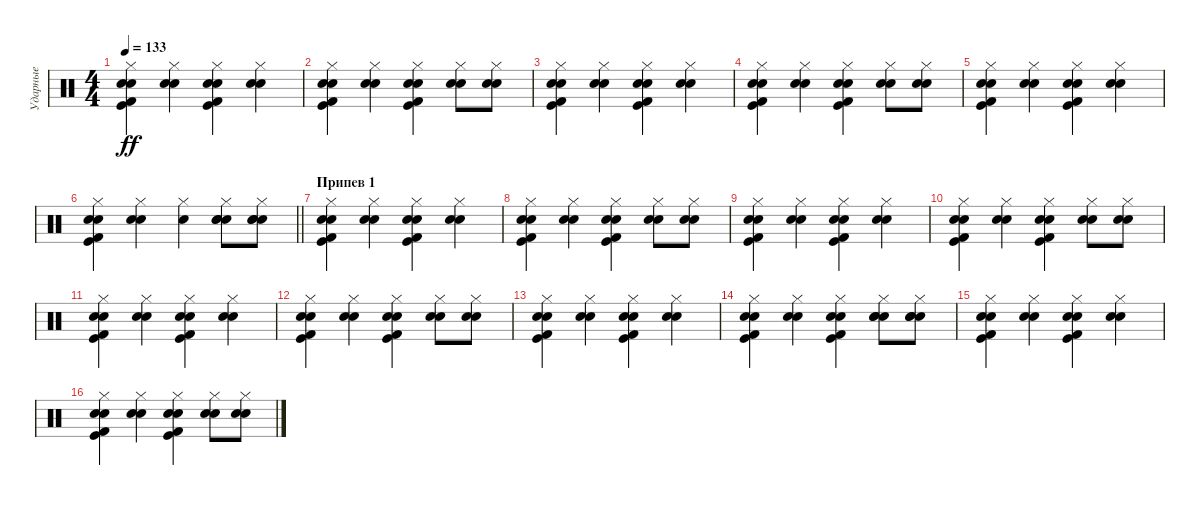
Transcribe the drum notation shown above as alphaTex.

\track ("Ударные" "Ударные") {instrument percussion}
\staff {score}
\articulation defaults
\ts (4 4)
\tempo 133
\clef neutral
\ks c
("Snare (hit) 2" "Kick (hit)" "Kick (hit) 2" "Snare (hit) 2" "Hi-Hat (closed)").4{dy ff} ("Electric Snare (hit)" "Electric Snare (hit)" "Hi-Hat (closed)").4 ("Snare (hit) 2" "Kick (hit)" "Kick (hit) 2" "Snare (hit) 2" "Hi-Hat (closed)").4 ("Electric Snare (hit)" "Electric Snare (hit)" "Hi-Hat (closed)").4 |
("Snare (hit) 2" "Kick (hit)" "Kick (hit) 2" "Snare (hit) 2" "Hi-Hat (closed)").4 ("Electric Snare (hit)" "Electric Snare (hit)" "Hi-Hat (closed)").4 ("Snare (hit) 2" "Kick (hit)" "Kick (hit) 2" "Snare (hit) 2" "Hi-Hat (closed)").4 ("Electric Snare (hit)" "Electric Snare (hit)" "Hi-Hat (closed)").8 ("Electric Snare (hit)" "Electric Snare (hit)" "Hi-Hat (closed)").8 |
("Snare (hit) 2" "Kick (hit)" "Kick (hit) 2" "Snare (hit) 2" "Hi-Hat (closed)").4 ("Electric Snare (hit)" "Electric Snare (hit)" "Hi-Hat (closed)").4 ("Snare (hit) 2" "Kick (hit)" "Kick (hit) 2" "Snare (hit) 2" "Hi-Hat (closed)").4 ("Electric Snare (hit)" "Electric Snare (hit)" "Hi-Hat (closed)").4 |
("Snare (hit) 2" "Kick (hit)" "Kick (hit) 2" "Snare (hit) 2" "Hi-Hat (closed)").4 ("Electric Snare (hit)" "Electric Snare (hit)" "Hi-Hat (closed)").4 ("Snare (hit) 2" "Kick (hit)" "Kick (hit) 2" "Snare (hit) 2" "Hi-Hat (closed)").4 ("Electric Snare (hit)" "Electric Snare (hit)" "Hi-Hat (closed)").8 ("Electric Snare (hit)" "Electric Snare (hit)" "Hi-Hat (closed)").8 |
("Snare (hit) 2" "Kick (hit)" "Kick (hit) 2" "Snare (hit) 2" "Hi-Hat (closed)").4 ("Electric Snare (hit)" "Electric Snare (hit)" "Hi-Hat (closed)").4 ("Snare (hit) 2" "Kick (hit)" "Kick (hit) 2" "Snare (hit) 2" "Hi-Hat (closed)").4 ("Electric Snare (hit)" "Electric Snare (hit)" "Hi-Hat (closed)").4 |
\barLineRight lightlight
("Snare (hit) 2" "Kick (hit)" "Kick (hit) 2" "Snare (hit) 2" "Hi-Hat (closed)").4 ("Electric Snare (hit)" "Electric Snare (hit)" "Hi-Hat (closed)").4 ("Electric Snare (hit)" "Hi-Hat (closed)").4 ("Snare (hit) 2" "Electric Snare (hit)" "Snare (hit) 2" "Hi-Hat (closed)").8 ("Snare (hit) 2" "Electric Snare (hit)" "Snare (hit) 2" "Hi-Hat (closed)").8 |
\section ("" "Припев 1")
("Snare (hit) 2" "Kick (hit)" "Kick (hit) 2" "Snare (hit) 2" "Hi-Hat (closed)").4 ("Electric Snare (hit)" "Electric Snare (hit)" "Hi-Hat (closed)").4 ("Snare (hit) 2" "Kick (hit)" "Kick (hit) 2" "Snare (hit) 2" "Hi-Hat (closed)").4 ("Electric Snare (hit)" "Electric Snare (hit)" "Hi-Hat (closed)").4 |
("Snare (hit) 2" "Kick (hit)" "Kick (hit) 2" "Snare (hit) 2" "Hi-Hat (closed)").4 ("Electric Snare (hit)" "Electric Snare (hit)" "Hi-Hat (closed)").4 ("Snare (hit) 2" "Kick (hit)" "Kick (hit) 2" "Snare (hit) 2" "Hi-Hat (closed)").4 ("Electric Snare (hit)" "Electric Snare (hit)" "Hi-Hat (closed)").8 ("Electric Snare (hit)" "Electric Snare (hit)" "Hi-Hat (closed)").8 |
("Snare (hit) 2" "Kick (hit)" "Kick (hit) 2" "Snare (hit) 2" "Hi-Hat (closed)").4 ("Electric Snare (hit)" "Electric Snare (hit)" "Hi-Hat (closed)").4 ("Snare (hit) 2" "Kick (hit)" "Kick (hit) 2" "Snare (hit) 2" "Hi-Hat (closed)").4 ("Electric Snare (hit)" "Electric Snare (hit)" "Hi-Hat (closed)").4 |
("Snare (hit) 2" "Kick (hit)" "Kick (hit) 2" "Snare (hit) 2" "Hi-Hat (closed)").4 ("Electric Snare (hit)" "Electric Snare (hit)" "Hi-Hat (closed)").4 ("Snare (hit) 2" "Kick (hit)" "Kick (hit) 2" "Snare (hit) 2" "Hi-Hat (closed)").4 ("Electric Snare (hit)" "Electric Snare (hit)" "Hi-Hat (closed)").8 ("Electric Snare (hit)" "Electric Snare (hit)" "Hi-Hat (closed)").8 |
("Snare (hit) 2" "Kick (hit)" "Kick (hit) 2" "Snare (hit) 2" "Hi-Hat (closed)").4 ("Electric Snare (hit)" "Electric Snare (hit)" "Hi-Hat (closed)").4 ("Snare (hit) 2" "Kick (hit)" "Kick (hit) 2" "Snare (hit) 2" "Hi-Hat (closed)").4 ("Electric Snare (hit)" "Electric Snare (hit)" "Hi-Hat (closed)").4 |
("Snare (hit) 2" "Kick (hit)" "Kick (hit) 2" "Snare (hit) 2" "Hi-Hat (closed)").4 ("Electric Snare (hit)" "Electric Snare (hit)" "Hi-Hat (closed)").4 ("Snare (hit) 2" "Kick (hit)" "Kick (hit) 2" "Snare (hit) 2" "Hi-Hat (closed)").4 ("Electric Snare (hit)" "Electric Snare (hit)" "Hi-Hat (closed)").8 ("Electric Snare (hit)" "Electric Snare (hit)" "Hi-Hat (closed)").8 |
("Snare (hit) 2" "Kick (hit)" "Kick (hit) 2" "Snare (hit) 2" "Hi-Hat (closed)").4 ("Electric Snare (hit)" "Electric Snare (hit)" "Hi-Hat (closed)").4 ("Snare (hit) 2" "Kick (hit)" "Kick (hit) 2" "Snare (hit) 2" "Hi-Hat (closed)").4 ("Electric Snare (hit)" "Electric Snare (hit)" "Hi-Hat (closed)").4 |
("Snare (hit) 2" "Kick (hit)" "Kick (hit) 2" "Snare (hit) 2" "Hi-Hat (closed)").4 ("Electric Snare (hit)" "Electric Snare (hit)" "Hi-Hat (closed)").4 ("Snare (hit) 2" "Kick (hit)" "Kick (hit) 2" "Snare (hit) 2" "Hi-Hat (closed)").4 ("Snare (hit) 2" "Snare (hit) 2" "Electric Snare (hit)" "Hi-Hat (closed)").8 ("Snare (hit) 2" "Snare (hit) 2" "Electric Snare (hit)" "Hi-Hat (closed)").8 |
("Snare (hit) 2" "Kick (hit)" "Kick (hit) 2" "Snare (hit) 2" "Hi-Hat (closed)").4 ("Electric Snare (hit)" "Electric Snare (hit)" "Hi-Hat (closed)").4 ("Snare (hit) 2" "Kick (hit)" "Kick (hit) 2" "Snare (hit) 2" "Hi-Hat (closed)").4 ("Electric Snare (hit)" "Electric Snare (hit)" "Hi-Hat (closed)").4 |
("Snare (hit) 2" "Kick (hit)" "Kick (hit) 2" "Snare (hit) 2" "Hi-Hat (closed)").4 ("Electric Snare (hit)" "Electric Snare (hit)" "Hi-Hat (closed)").4 ("Snare (hit) 2" "Kick (hit)" "Kick (hit) 2" "Snare (hit) 2" "Hi-Hat (closed)").4 ("Electric Snare (hit)" "Electric Snare (hit)" "Hi-Hat (closed)").8 ("Electric Snare (hit)" "Electric Snare (hit)" "Hi-Hat (closed)").8
